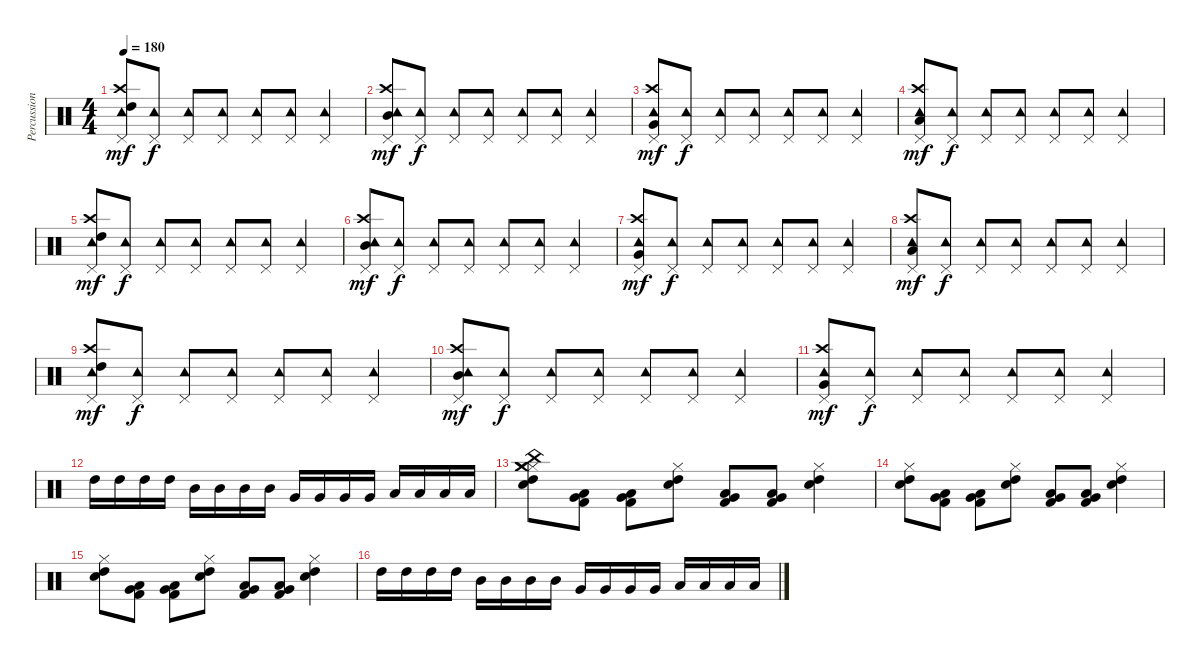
\track ("Percussion" "Percussion") {instrument percussion}
\staff {score}
\articulation defaults
\ts (4 4)
\tempo 180
\clef neutral
\ks c
("Pedal Hi-Hat (hit)" "Tambourine (hit)" "Crash high (hit)" "High Tom (hit)").8{dy mf} ("Pedal Hi-Hat (hit)" "Tambourine (hit)").8{dy f} ("Pedal Hi-Hat (hit)" "Tambourine (hit)").8 ("Pedal Hi-Hat (hit)" "Tambourine (hit)").8 ("Pedal Hi-Hat (hit)" "Tambourine (hit)").8 ("Pedal Hi-Hat (hit)" "Tambourine (hit)").8 ("Pedal Hi-Hat (hit)" "Tambourine (hit)").4 |
("Pedal Hi-Hat (hit)" "Tambourine (hit)" "Crash high (hit)" "Mid Tom (hit)").8{dy mf} ("Pedal Hi-Hat (hit)" "Tambourine (hit)").8{dy f} ("Pedal Hi-Hat (hit)" "Tambourine (hit)").8 ("Pedal Hi-Hat (hit)" "Tambourine (hit)").8 ("Pedal Hi-Hat (hit)" "Tambourine (hit)").8 ("Pedal Hi-Hat (hit)" "Tambourine (hit)").8 ("Pedal Hi-Hat (hit)" "Tambourine (hit)").4 |
("Pedal Hi-Hat (hit)" "Tambourine (hit)" "Crash high (hit)" "Very Low Tom (hit)").8{dy mf} ("Pedal Hi-Hat (hit)" "Tambourine (hit)").8{dy f} ("Pedal Hi-Hat (hit)" "Tambourine (hit)").8 ("Pedal Hi-Hat (hit)" "Tambourine (hit)").8 ("Pedal Hi-Hat (hit)" "Tambourine (hit)").8 ("Pedal Hi-Hat (hit)" "Tambourine (hit)").8 ("Pedal Hi-Hat (hit)" "Tambourine (hit)").4 |
("Pedal Hi-Hat (hit)" "Tambourine (hit)" "Crash high (hit)" "Low Floor Tom (hit)").8{dy mf} ("Pedal Hi-Hat (hit)" "Tambourine (hit)").8{dy f} ("Pedal Hi-Hat (hit)" "Tambourine (hit)").8 ("Pedal Hi-Hat (hit)" "Tambourine (hit)").8 ("Pedal Hi-Hat (hit)" "Tambourine (hit)").8 ("Pedal Hi-Hat (hit)" "Tambourine (hit)").8 ("Pedal Hi-Hat (hit)" "Tambourine (hit)").4 |
("Pedal Hi-Hat (hit)" "Tambourine (hit)" "Crash high (hit)" "High Tom (hit)").8{dy mf} ("Pedal Hi-Hat (hit)" "Tambourine (hit)").8{dy f} ("Pedal Hi-Hat (hit)" "Tambourine (hit)").8 ("Pedal Hi-Hat (hit)" "Tambourine (hit)").8 ("Pedal Hi-Hat (hit)" "Tambourine (hit)").8 ("Pedal Hi-Hat (hit)" "Tambourine (hit)").8 ("Pedal Hi-Hat (hit)" "Tambourine (hit)").4 |
("Pedal Hi-Hat (hit)" "Tambourine (hit)" "Crash high (hit)" "Mid Tom (hit)").8{dy mf} ("Pedal Hi-Hat (hit)" "Tambourine (hit)").8{dy f} ("Pedal Hi-Hat (hit)" "Tambourine (hit)").8 ("Pedal Hi-Hat (hit)" "Tambourine (hit)").8 ("Pedal Hi-Hat (hit)" "Tambourine (hit)").8 ("Pedal Hi-Hat (hit)" "Tambourine (hit)").8 ("Pedal Hi-Hat (hit)" "Tambourine (hit)").4 |
("Pedal Hi-Hat (hit)" "Tambourine (hit)" "Crash high (hit)" "Very Low Tom (hit)").8{dy mf} ("Pedal Hi-Hat (hit)" "Tambourine (hit)").8{dy f} ("Pedal Hi-Hat (hit)" "Tambourine (hit)").8 ("Pedal Hi-Hat (hit)" "Tambourine (hit)").8 ("Pedal Hi-Hat (hit)" "Tambourine (hit)").8 ("Pedal Hi-Hat (hit)" "Tambourine (hit)").8 ("Pedal Hi-Hat (hit)" "Tambourine (hit)").4 |
("Pedal Hi-Hat (hit)" "Tambourine (hit)" "Crash high (hit)" "Low Floor Tom (hit)").8{dy mf} ("Pedal Hi-Hat (hit)" "Tambourine (hit)").8{dy f} ("Pedal Hi-Hat (hit)" "Tambourine (hit)").8 ("Pedal Hi-Hat (hit)" "Tambourine (hit)").8 ("Pedal Hi-Hat (hit)" "Tambourine (hit)").8 ("Pedal Hi-Hat (hit)" "Tambourine (hit)").8 ("Pedal Hi-Hat (hit)" "Tambourine (hit)").4 |
("Pedal Hi-Hat (hit)" "Tambourine (hit)" "Crash high (hit)" "High Tom (hit)").8{dy mf} ("Pedal Hi-Hat (hit)" "Tambourine (hit)").8{dy f} ("Pedal Hi-Hat (hit)" "Tambourine (hit)").8 ("Pedal Hi-Hat (hit)" "Tambourine (hit)").8 ("Pedal Hi-Hat (hit)" "Tambourine (hit)").8 ("Pedal Hi-Hat (hit)" "Tambourine (hit)").8 ("Pedal Hi-Hat (hit)" "Tambourine (hit)").4 |
("Pedal Hi-Hat (hit)" "Tambourine (hit)" "Crash high (hit)" "Mid Tom (hit)").8{dy mf} ("Pedal Hi-Hat (hit)" "Tambourine (hit)").8{dy f} ("Pedal Hi-Hat (hit)" "Tambourine (hit)").8 ("Pedal Hi-Hat (hit)" "Tambourine (hit)").8 ("Pedal Hi-Hat (hit)" "Tambourine (hit)").8 ("Pedal Hi-Hat (hit)" "Tambourine (hit)").8 ("Pedal Hi-Hat (hit)" "Tambourine (hit)").4 |
("Pedal Hi-Hat (hit)" "Tambourine (hit)" "Crash high (hit)" "Very Low Tom (hit)").8{dy mf} ("Pedal Hi-Hat (hit)" "Tambourine (hit)").8{dy f} ("Pedal Hi-Hat (hit)" "Tambourine (hit)").8 ("Pedal Hi-Hat (hit)" "Tambourine (hit)").8 ("Pedal Hi-Hat (hit)" "Tambourine (hit)").8 ("Pedal Hi-Hat (hit)" "Tambourine (hit)").8 ("Pedal Hi-Hat (hit)" "Tambourine (hit)").4 |
"High Tom (hit)".16 "High Tom (hit)".16 "High Tom (hit)".16 "High Tom (hit)".16 "Mid Tom (hit)".16 "Mid Tom (hit)".16 "Mid Tom (hit)".16 "Mid Tom (hit)".16 "Very Low Tom (hit)".16 "Very Low Tom (hit)".16 "Very Low Tom (hit)".16 "Very Low Tom (hit)".16 "Low Floor Tom (hit)".16 "Low Floor Tom (hit)".16 "Low Floor Tom (hit)".16 "Low Floor Tom (hit)".16 |
("High Tom (hit)" "Snare (hit) 2" "Hi-Hat (closed)" "China (hit)" "Crash medium (hit)" "Crash medium (hit)").8 ("Kick (hit) 2" "Very Low Tom (hit)" "Low Tom (hit)").8 ("Kick (hit) 2" "Very Low Tom (hit)" "Low Tom (hit)").8 ("High Tom (hit)" "Snare (hit) 2" "Hi-Hat (closed)").8 ("Kick (hit) 2" "Very Low Tom (hit)" "Low Tom (hit)").8 ("Kick (hit) 2" "Very Low Tom (hit)" "Low Tom (hit)").8 ("High Tom (hit)" "Snare (hit) 2" "Hi-Hat (closed)").4 |
("High Tom (hit)" "Snare (hit) 2" "Hi-Hat (closed)").8 ("Kick (hit) 2" "Very Low Tom (hit)" "Low Tom (hit)").8 ("Kick (hit) 2" "Very Low Tom (hit)" "Low Tom (hit)").8 ("High Tom (hit)" "Snare (hit) 2" "Hi-Hat (closed)").8 ("Kick (hit) 2" "Very Low Tom (hit)" "Low Tom (hit)").8 ("Kick (hit) 2" "Very Low Tom (hit)" "Low Tom (hit)").8 ("High Tom (hit)" "Snare (hit) 2" "Hi-Hat (closed)").4 |
("High Tom (hit)" "Snare (hit) 2" "Hi-Hat (closed)").8 ("Kick (hit) 2" "Very Low Tom (hit)" "Low Tom (hit)").8 ("Kick (hit) 2" "Very Low Tom (hit)" "Low Tom (hit)").8 ("High Tom (hit)" "Snare (hit) 2" "Hi-Hat (closed)").8 ("Kick (hit) 2" "Very Low Tom (hit)" "Low Tom (hit)").8 ("Kick (hit) 2" "Very Low Tom (hit)" "Low Tom (hit)").8 ("High Tom (hit)" "Snare (hit) 2" "Hi-Hat (closed)").4 |
"High Tom (hit)".16 "High Tom (hit)".16 "High Tom (hit)".16 "High Tom (hit)".16 "Mid Tom (hit)".16 "Mid Tom (hit)".16 "Mid Tom (hit)".16 "Mid Tom (hit)".16 "Very Low Tom (hit)".16 "Very Low Tom (hit)".16 "Very Low Tom (hit)".16 "Very Low Tom (hit)".16 "Low Floor Tom (hit)".16 "Low Floor Tom (hit)".16 "Low Floor Tom (hit)".16 "Low Floor Tom (hit)".16
